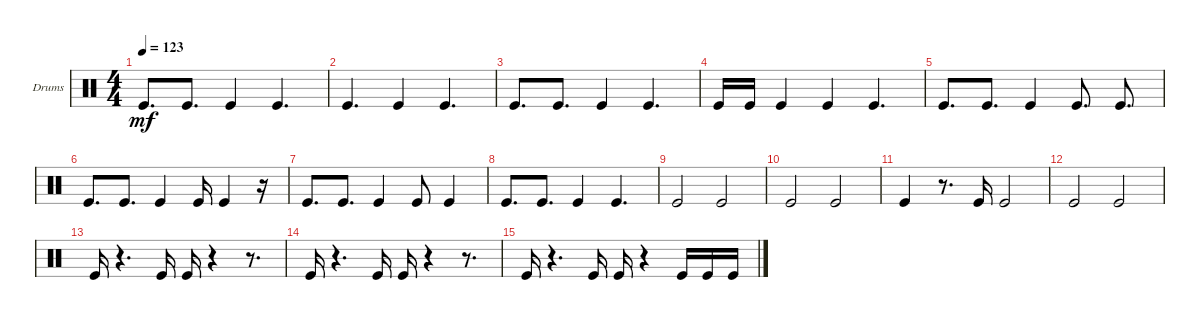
\bracketExtendMode groupsimilarinstruments
\firstSystemTrackNameOrientation horizontal
\otherSystemsTrackNameOrientation horizontal
\track ("Bass Drum" "Drums") {instrument percussion}
\staff {score}
\articulation defaults
\ts (4 4)
\tempo 123
\clef neutral
\ks c "Kick (hit)".8{d dy mf} "Kick (hit)".8{d} "Kick (hit)".4 "Kick (hit)".4{d}
|
"Kick (hit)".4{d} "Kick (hit)".4 "Kick (hit)".4{d} |
"Kick (hit)".8{d} "Kick (hit)".8{d} "Kick (hit)".4 "Kick (hit)".4{d} |
"Kick (hit)".16 "Kick (hit)".16 "Kick (hit)".4 "Kick (hit)".4 "Kick (hit)".4{d} |
"Kick (hit)".8{d} "Kick (hit)".8{d} "Kick (hit)".4 "Kick (hit)".8{d} "Kick (hit)".8{d} |
"Kick (hit)".8{d} "Kick (hit)".8{d} "Kick (hit)".4 "Kick (hit)".16 "Kick (hit)".4 r.16 |
"Kick (hit)".8{d} "Kick (hit)".8{d} "Kick (hit)".4 "Kick (hit)".8 "Kick (hit)".4 |
"Kick (hit)".8{d} "Kick (hit)".8{d} "Kick (hit)".4 "Kick (hit)".4{d} |
"Kick (hit)".2 "Kick (hit)".2 |
"Kick (hit)".2 "Kick (hit)".2 |
"Kick (hit)".4 r.8{d} "Kick (hit)".16 "Kick (hit)".2 |
"Kick (hit)".2 "Kick (hit)".2 |
"Kick (hit)".16 r.4{d} "Kick (hit)".16 "Kick (hit)".16 r.4 r.8{d} |
"Kick (hit)".16 r.4{d} "Kick (hit)".16 "Kick (hit)".16 r.4 r.8{d} |
"Kick (hit)".16 r.4{d} "Kick (hit)".16 "Kick (hit)".16 r.4 "Kick (hit)".16 "Kick (hit)".16 "Kick (hit)".16
